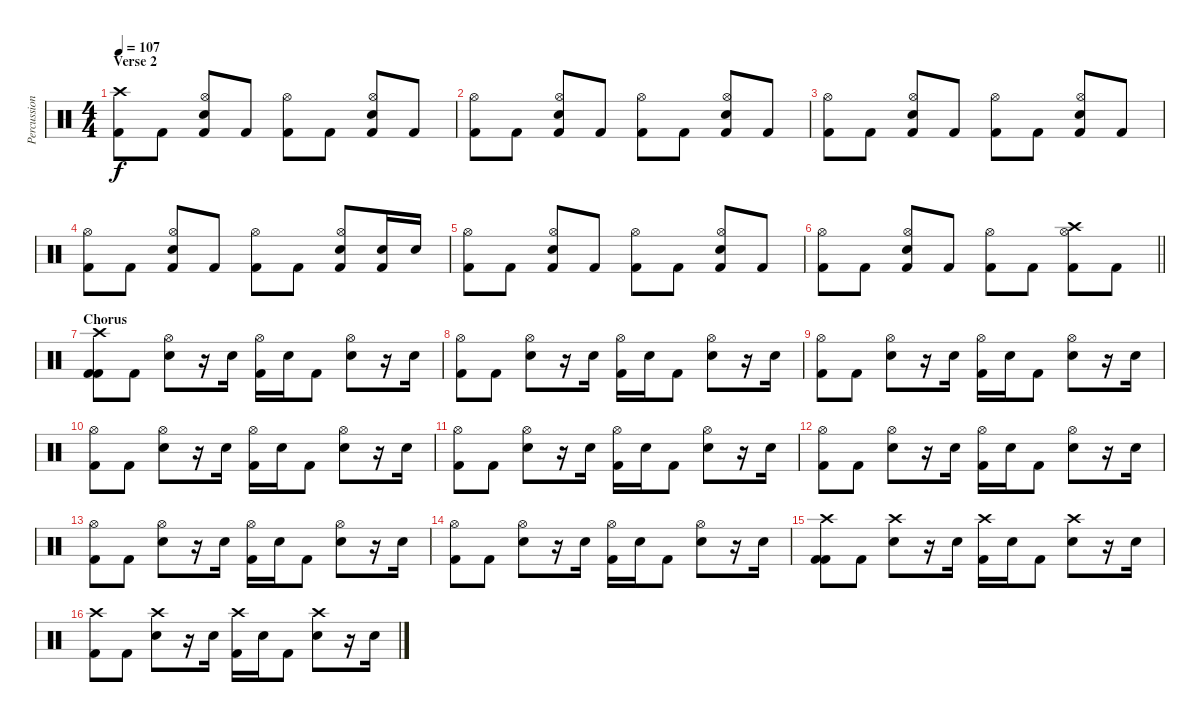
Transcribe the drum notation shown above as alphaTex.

\track ("Percussion" "Percussion") {instrument percussion}
\staff {score}
\articulation defaults
\ts (4 4)
\section ("" "Verse 2")
\tempo 107
\clef neutral
\ks c
("Crash high (hit)" "Kick (hit) 2").8{dy f} "Kick (hit) 2".8 ("Hi-Hat (open)" "Snare (hit) 2" "Kick (hit) 2").8 "Kick (hit) 2".8 ("Hi-Hat (open)" "Kick (hit) 2").8 "Kick (hit) 2".8 ("Hi-Hat (open)" "Snare (hit) 2" "Kick (hit) 2").8 "Kick (hit) 2".8 |
("Hi-Hat (open)" "Kick (hit) 2").8 "Kick (hit) 2".8 ("Hi-Hat (open)" "Snare (hit) 2" "Kick (hit) 2").8 "Kick (hit) 2".8 ("Hi-Hat (open)" "Kick (hit) 2").8 "Kick (hit) 2".8 ("Hi-Hat (open)" "Snare (hit) 2" "Kick (hit) 2").8 "Kick (hit) 2".8 |
("Hi-Hat (open)" "Kick (hit) 2").8 "Kick (hit) 2".8 ("Hi-Hat (open)" "Snare (hit) 2" "Kick (hit) 2").8 "Kick (hit) 2".8 ("Hi-Hat (open)" "Kick (hit) 2").8 "Kick (hit) 2".8 ("Hi-Hat (open)" "Snare (hit) 2" "Kick (hit) 2").8 "Kick (hit) 2".8 |
("Hi-Hat (open)" "Kick (hit) 2").8 "Kick (hit) 2".8 ("Hi-Hat (open)" "Snare (hit) 2" "Kick (hit) 2").8 "Kick (hit) 2".8 ("Hi-Hat (open)" "Kick (hit) 2").8 "Kick (hit) 2".8 ("Hi-Hat (open)" "Snare (hit) 2" "Kick (hit) 2").8 ("Snare (hit) 2" "Kick (hit) 2").16 "Snare (hit) 2".16 |
("Hi-Hat (open)" "Kick (hit) 2").8 "Kick (hit) 2".8 ("Hi-Hat (open)" "Snare (hit) 2" "Kick (hit) 2").8 "Kick (hit) 2".8 ("Hi-Hat (open)" "Kick (hit) 2").8 "Kick (hit) 2".8 ("Hi-Hat (open)" "Snare (hit) 2" "Kick (hit) 2").8 "Kick (hit) 2".8 |
\barLineRight lightlight
("Hi-Hat (open)" "Kick (hit) 2").8 "Kick (hit) 2".8 ("Hi-Hat (open)" "Snare (hit) 2" "Kick (hit) 2").8 "Kick (hit) 2".8 ("Hi-Hat (open)" "Kick (hit) 2").8 "Kick (hit) 2".8 ("Hi-Hat (open)" "Crash high (hit)" "Kick (hit) 2").8 "Kick (hit) 2".8 |
\section ("" "Chorus")
("Kick (hit) 2" "Crash high (hit)" "Kick (hit) 2").8 "Kick (hit) 2".8 ("Hi-Hat (open)" "Snare (hit) 2").8 r.16 "Snare (hit) 2".16 ("Hi-Hat (open)" "Kick (hit) 2").16 "Snare (hit) 2".16 "Kick (hit) 2".8 ("Hi-Hat (open)" "Snare (hit) 2").8 r.16 "Snare (hit) 2".16 |
("Hi-Hat (open)" "Kick (hit) 2").8 "Kick (hit) 2".8 ("Hi-Hat (open)" "Snare (hit) 2").8 r.16 "Snare (hit) 2".16 ("Hi-Hat (open)" "Kick (hit) 2").16 "Snare (hit) 2".16 "Kick (hit) 2".8 ("Hi-Hat (open)" "Snare (hit) 2").8 r.16 "Snare (hit) 2".16 |
("Hi-Hat (open)" "Kick (hit) 2").8 "Kick (hit) 2".8 ("Hi-Hat (open)" "Snare (hit) 2").8 r.16 "Snare (hit) 2".16 ("Hi-Hat (open)" "Kick (hit) 2").16 "Snare (hit) 2".16 "Kick (hit) 2".8 ("Hi-Hat (open)" "Snare (hit) 2").8 r.16 "Snare (hit) 2".16 |
("Hi-Hat (open)" "Kick (hit) 2").8 "Kick (hit) 2".8 ("Hi-Hat (open)" "Snare (hit) 2").8 r.16 "Snare (hit) 2".16 ("Hi-Hat (open)" "Kick (hit) 2").16 "Snare (hit) 2".16 "Kick (hit) 2".8 ("Hi-Hat (open)" "Snare (hit) 2").8 r.16 "Snare (hit) 2".16 |
("Hi-Hat (open)" "Kick (hit) 2").8 "Kick (hit) 2".8 ("Hi-Hat (open)" "Snare (hit) 2").8 r.16 "Snare (hit) 2".16 ("Hi-Hat (open)" "Kick (hit) 2").16 "Snare (hit) 2".16 "Kick (hit) 2".8 ("Hi-Hat (open)" "Snare (hit) 2").8 r.16 "Snare (hit) 2".16 |
("Hi-Hat (open)" "Kick (hit) 2").8 "Kick (hit) 2".8 ("Hi-Hat (open)" "Snare (hit) 2").8 r.16 "Snare (hit) 2".16 ("Hi-Hat (open)" "Kick (hit) 2").16 "Snare (hit) 2".16 "Kick (hit) 2".8 ("Hi-Hat (open)" "Snare (hit) 2").8 r.16 "Snare (hit) 2".16 |
("Hi-Hat (open)" "Kick (hit) 2").8 "Kick (hit) 2".8 ("Hi-Hat (open)" "Snare (hit) 2").8 r.16 "Snare (hit) 2".16 ("Hi-Hat (open)" "Kick (hit) 2").16 "Snare (hit) 2".16 "Kick (hit) 2".8 ("Hi-Hat (open)" "Snare (hit) 2").8 r.16 "Snare (hit) 2".16 |
("Hi-Hat (open)" "Kick (hit) 2").8 "Kick (hit) 2".8 ("Hi-Hat (open)" "Snare (hit) 2").8 r.16 "Snare (hit) 2".16 ("Hi-Hat (open)" "Kick (hit) 2").16 "Snare (hit) 2".16 "Kick (hit) 2".8 ("Hi-Hat (open)" "Snare (hit) 2").8 r.16 "Snare (hit) 2".16 |
("Kick (hit) 2" "Crash high (hit)" "Kick (hit) 2").8 "Kick (hit) 2".8 ("Crash high (hit)" "Snare (hit) 2").8 r.16 "Snare (hit) 2".16 ("Crash high (hit)" "Kick (hit) 2").16 "Snare (hit) 2".16 "Kick (hit) 2".8 ("Crash high (hit)" "Snare (hit) 2").8 r.16 "Snare (hit) 2".16 |
("Crash high (hit)" "Kick (hit) 2").8 "Kick (hit) 2".8 ("Crash high (hit)" "Snare (hit) 2").8 r.16 "Snare (hit) 2".16 ("Crash high (hit)" "Kick (hit) 2").16 "Snare (hit) 2".16 "Kick (hit) 2".8 ("Crash high (hit)" "Snare (hit) 2").8 r.16 "Snare (hit) 2".16
